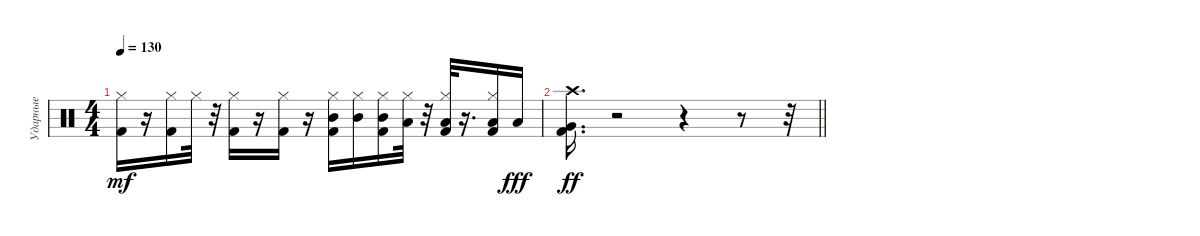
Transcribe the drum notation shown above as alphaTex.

\track ("Ударные" "Ударные") {instrument percussion}
\staff {score}
\articulation defaults
\ts (4 4)
\tempo 130
\clef neutral
\ks c
("Kick (hit) 2" "Hi-Hat (closed)").16{dy mf} r.16 ("Kick (hit) 2" "Hi-Hat (closed)").16 "Hi-Hat (closed)".32 r.32 ("Kick (hit) 2" "Hi-Hat (closed)").16 r.16 ("Kick (hit) 2" "Hi-Hat (closed)").16 r.16 ("Mid Tom (hit)" "Kick (hit) 2" "Hi-Hat (closed)").16 ("Mid Tom (hit)" "Hi-Hat (closed)").16 ("Mid Tom (hit)" "Kick (hit) 2" "Hi-Hat (closed)").16 ("Low Tom (hit)" "Hi-Hat (closed)").32 r.32 ("Kick (hit) 2" "Low Tom (hit)" "Hi-Hat (closed)").32 r.16{d} ("Kick (hit) 2" "Low Tom (hit)" "Hi-Hat (closed)").16 "Low Tom (hit)".16{dy fff} |
\barLineRight lightlight
("Kick (hit) 2" "Very Low Tom (hit)" "Crash high (hit)").16{d dy ff} r.2 r.4 r.8 r.32
